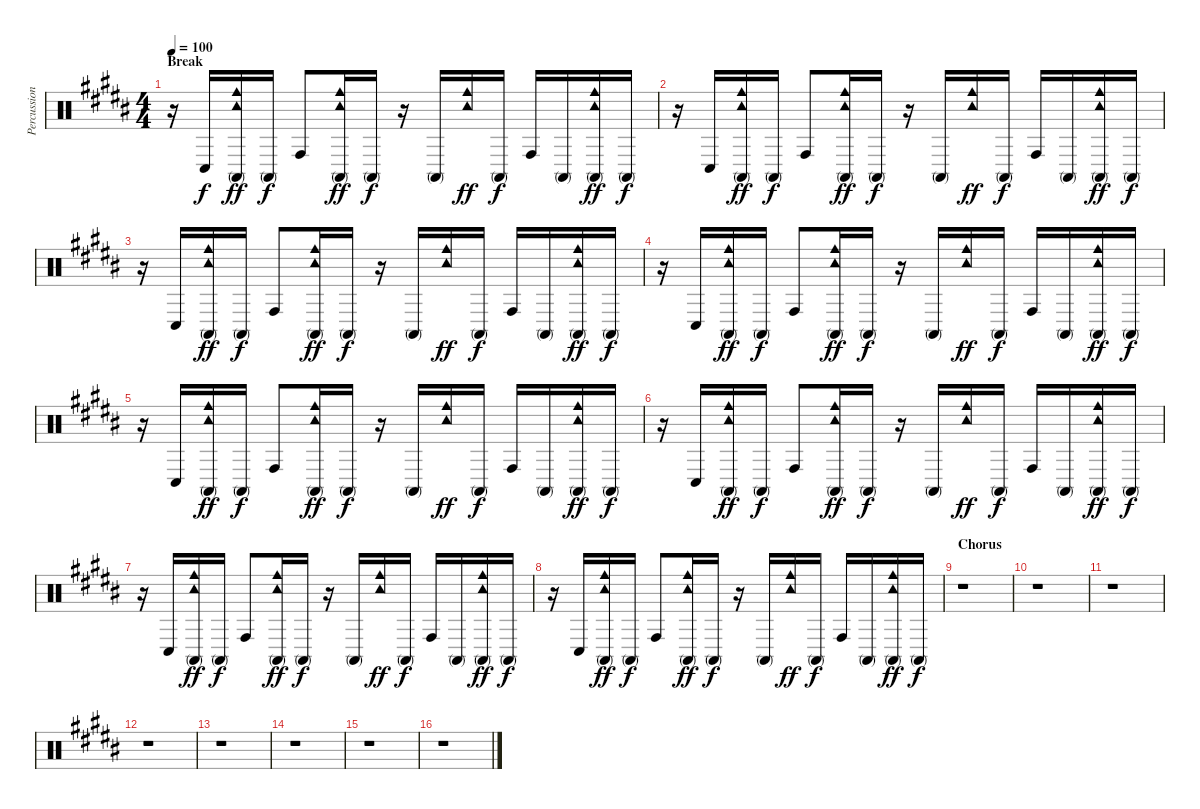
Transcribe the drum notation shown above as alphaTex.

\track ("Percussion" "Percussion") {instrument percussion}
\staff {score}
\articulation defaults
\ts (4 4)
\section ("" "Break")
\tempo 100
\clef neutral
\ks b
r.16{dy p} "Conga low (hit)".16{dy f} ("Tambourine (hit)" "Cowbell medium (hit)" "Conga high (mute)").16{dy ff} "Conga high (mute)".16{dy f} "Conga high (hit)".8 ("Tambourine (hit)" "Cowbell medium (hit)" "Conga high (mute)").16{dy ff} "Conga high (mute)".16{dy f} r.16 "Conga high (mute)".16 ("Tambourine (hit)" "Cowbell medium (hit)").16{dy ff} "Conga high (mute)".16{dy f} "Conga high (hit)".16 "Conga high (mute)".16 ("Tambourine (hit)" "Cowbell medium (hit)" "Conga high (mute)").16{dy ff} "Conga high (mute)".16{dy f} |
r.16 "Conga low (hit)".16 ("Tambourine (hit)" "Cowbell medium (hit)" "Conga high (mute)").16{dy ff} "Conga high (mute)".16{dy f} "Conga high (hit)".8 ("Tambourine (hit)" "Cowbell medium (hit)" "Conga high (mute)").16{dy ff} "Conga high (mute)".16{dy f} r.16 "Conga high (mute)".16 ("Tambourine (hit)" "Cowbell medium (hit)").16{dy ff} "Conga high (mute)".16{dy f} "Conga high (hit)".16 "Conga high (mute)".16 ("Tambourine (hit)" "Cowbell medium (hit)" "Conga high (mute)").16{dy ff} "Conga high (mute)".16{dy f} |
r.16 "Conga low (hit)".16 ("Tambourine (hit)" "Cowbell medium (hit)" "Conga high (mute)").16{dy ff} "Conga high (mute)".16{dy f} "Conga high (hit)".8 ("Tambourine (hit)" "Cowbell medium (hit)" "Conga high (mute)").16{dy ff} "Conga high (mute)".16{dy f} r.16 "Conga high (mute)".16 ("Tambourine (hit)" "Cowbell medium (hit)").16{dy ff} "Conga high (mute)".16{dy f} "Conga high (hit)".16 "Conga high (mute)".16 ("Tambourine (hit)" "Cowbell medium (hit)" "Conga high (mute)").16{dy ff} "Conga high (mute)".16{dy f} |
r.16 "Conga low (hit)".16 ("Tambourine (hit)" "Cowbell medium (hit)" "Conga high (mute)").16{dy ff} "Conga high (mute)".16{dy f} "Conga high (hit)".8 ("Tambourine (hit)" "Cowbell medium (hit)" "Conga high (mute)").16{dy ff} "Conga high (mute)".16{dy f} r.16 "Conga high (mute)".16 ("Tambourine (hit)" "Cowbell medium (hit)").16{dy ff} "Conga high (mute)".16{dy f} "Conga high (hit)".16 "Conga high (mute)".16 ("Tambourine (hit)" "Cowbell medium (hit)" "Conga high (mute)").16{dy ff} "Conga high (mute)".16{dy f} |
r.16 "Conga low (hit)".16 ("Tambourine (hit)" "Cowbell medium (hit)" "Conga high (mute)").16{dy ff} "Conga high (mute)".16{dy f} "Conga high (hit)".8 ("Tambourine (hit)" "Cowbell medium (hit)" "Conga high (mute)").16{dy ff} "Conga high (mute)".16{dy f} r.16 "Conga high (mute)".16 ("Tambourine (hit)" "Cowbell medium (hit)").16{dy ff} "Conga high (mute)".16{dy f} "Conga high (hit)".16 "Conga high (mute)".16 ("Tambourine (hit)" "Cowbell medium (hit)" "Conga high (mute)").16{dy ff} "Conga high (mute)".16{dy f} |
r.16 "Conga low (hit)".16 ("Tambourine (hit)" "Cowbell medium (hit)" "Conga high (mute)").16{dy ff} "Conga high (mute)".16{dy f} "Conga high (hit)".8 ("Tambourine (hit)" "Cowbell medium (hit)" "Conga high (mute)").16{dy ff} "Conga high (mute)".16{dy f} r.16 "Conga high (mute)".16 ("Tambourine (hit)" "Cowbell medium (hit)").16{dy ff} "Conga high (mute)".16{dy f} "Conga high (hit)".16 "Conga high (mute)".16 ("Tambourine (hit)" "Cowbell medium (hit)" "Conga high (mute)").16{dy ff} "Conga high (mute)".16{dy f} |
r.16 "Conga low (hit)".16 ("Tambourine (hit)" "Cowbell medium (hit)" "Conga high (mute)").16{dy ff} "Conga high (mute)".16{dy f} "Conga high (hit)".8 ("Tambourine (hit)" "Cowbell medium (hit)" "Conga high (mute)").16{dy ff} "Conga high (mute)".16{dy f} r.16 "Conga high (mute)".16 ("Tambourine (hit)" "Cowbell medium (hit)").16{dy ff} "Conga high (mute)".16{dy f} "Conga high (hit)".16 "Conga high (mute)".16 ("Tambourine (hit)" "Cowbell medium (hit)" "Conga high (mute)").16{dy ff} "Conga high (mute)".16{dy f} |
r.16 "Conga low (hit)".16 ("Tambourine (hit)" "Cowbell medium (hit)" "Conga high (mute)").16{dy ff} "Conga high (mute)".16{dy f} "Conga high (hit)".8 ("Tambourine (hit)" "Cowbell medium (hit)" "Conga high (mute)").16{dy ff} "Conga high (mute)".16{dy f} r.16 "Conga high (mute)".16 ("Tambourine (hit)" "Cowbell medium (hit)").16{dy ff} "Conga high (mute)".16{dy f} "Conga high (hit)".16 "Conga high (mute)".16 ("Tambourine (hit)" "Cowbell medium (hit)" "Conga high (mute)").16{dy ff} "Conga high (mute)".16{dy f} |
\section ("" "Chorus")
r.1 |
r.1 |
r.1 |
r.1 |
r.1 |
r.1 |
r.1 |
r.1
